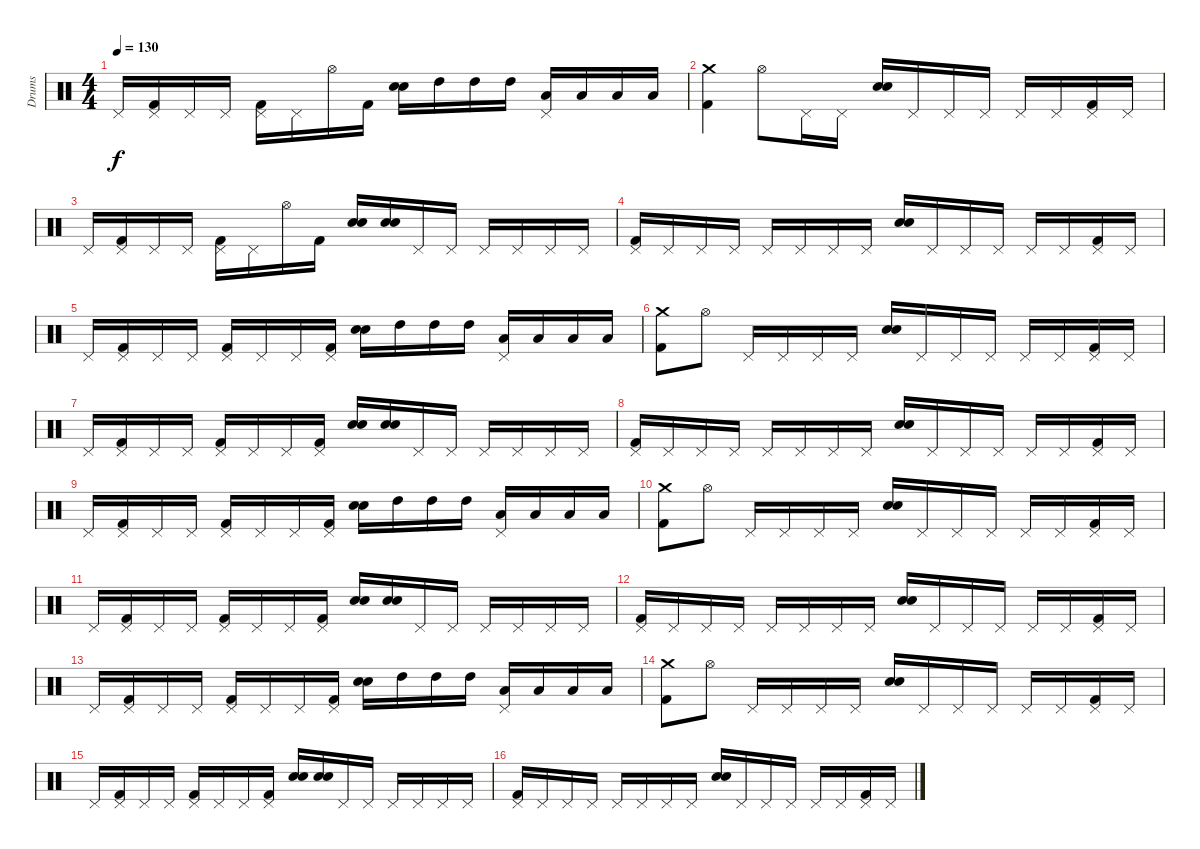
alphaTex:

\track ("Drums" "Drums") {instrument percussion}
\staff {score}
\articulation defaults
\ts (4 4)
\tempo 130
\clef neutral
\ks c "Pedal Hi-Hat (hit)".16{dy f}
("Pedal Hi-Hat (hit)" "Kick (hit) 2").16 "Pedal Hi-Hat (hit)".16 "Pedal Hi-Hat (hit)".16 ("Pedal Hi-Hat (hit)" "Kick (hit) 2").16 "Pedal Hi-Hat (hit)".16 "Hi-Hat (open)".16 "Kick (hit) 2".16 ("Electric Snare (hit)" "Electric Snare (hit)").16 "High Tom (hit)".16 "High Tom (hit)".16 "High Tom (hit)".16 ("Low Tom (hit)" "Pedal Hi-Hat (hit)").16 "Low Tom (hit)".16 "Low Tom (hit)".16 "Low Tom (hit)".16 |
("Crash medium (hit)" "Kick (hit) 2").4 "Hi-Hat (open)".8 "Pedal Hi-Hat (hit)".16 "Pedal Hi-Hat (hit)".16 ("Electric Snare (hit)" "Electric Snare (hit)").16 "Pedal Hi-Hat (hit)".16 "Pedal Hi-Hat (hit)".16 "Pedal Hi-Hat (hit)".16 "Pedal Hi-Hat (hit)".16 "Pedal Hi-Hat (hit)".16 ("Pedal Hi-Hat (hit)" "Kick (hit) 2").16 "Pedal Hi-Hat (hit)".16 |
"Pedal Hi-Hat (hit)".16 ("Pedal Hi-Hat (hit)" "Kick (hit) 2").16 "Pedal Hi-Hat (hit)".16 "Pedal Hi-Hat (hit)".16 ("Pedal Hi-Hat (hit)" "Kick (hit) 2").16 "Pedal Hi-Hat (hit)".16 "Hi-Hat (open)".16 "Kick (hit) 2".16 ("Electric Snare (hit)" "Electric Snare (hit)").16 ("Electric Snare (hit)" "Electric Snare (hit)").16 "Pedal Hi-Hat (hit)".16 "Pedal Hi-Hat (hit)".16 "Pedal Hi-Hat (hit)".16 "Pedal Hi-Hat (hit)".16 "Pedal Hi-Hat (hit)".16 "Pedal Hi-Hat (hit)".16 |
("Pedal Hi-Hat (hit)" "Kick (hit) 2").16 "Pedal Hi-Hat (hit)".16 "Pedal Hi-Hat (hit)".16 "Pedal Hi-Hat (hit)".16 "Pedal Hi-Hat (hit)".16 "Pedal Hi-Hat (hit)".16 "Pedal Hi-Hat (hit)".16 "Pedal Hi-Hat (hit)".16 ("Electric Snare (hit)" "Electric Snare (hit)").16 "Pedal Hi-Hat (hit)".16 "Pedal Hi-Hat (hit)".16 "Pedal Hi-Hat (hit)".16 "Pedal Hi-Hat (hit)".16 "Pedal Hi-Hat (hit)".16 ("Pedal Hi-Hat (hit)" "Kick (hit) 2").16 "Pedal Hi-Hat (hit)".16 |
"Pedal Hi-Hat (hit)".16 ("Pedal Hi-Hat (hit)" "Kick (hit) 2").16 "Pedal Hi-Hat (hit)".16 "Pedal Hi-Hat (hit)".16 ("Pedal Hi-Hat (hit)" "Kick (hit) 2").16 "Pedal Hi-Hat (hit)".16 "Pedal Hi-Hat (hit)".16 ("Pedal Hi-Hat (hit)" "Kick (hit) 2").16 ("Electric Snare (hit)" "Electric Snare (hit)").16 "High Tom (hit)".16 "High Tom (hit)".16 "High Tom (hit)".16 ("Low Tom (hit)" "Pedal Hi-Hat (hit)").16 "Low Tom (hit)".16 "Low Tom (hit)".16 "Low Tom (hit)".16 |
("Crash medium (hit)" "Kick (hit) 2").8 "Hi-Hat (open)".8 "Pedal Hi-Hat (hit)".16 "Pedal Hi-Hat (hit)".16 "Pedal Hi-Hat (hit)".16 "Pedal Hi-Hat (hit)".16 ("Electric Snare (hit)" "Electric Snare (hit)").16 "Pedal Hi-Hat (hit)".16 "Pedal Hi-Hat (hit)".16 "Pedal Hi-Hat (hit)".16 "Pedal Hi-Hat (hit)".16 "Pedal Hi-Hat (hit)".16 ("Pedal Hi-Hat (hit)" "Kick (hit) 2").16 "Pedal Hi-Hat (hit)".16 |
"Pedal Hi-Hat (hit)".16 ("Pedal Hi-Hat (hit)" "Kick (hit) 2").16 "Pedal Hi-Hat (hit)".16 "Pedal Hi-Hat (hit)".16 ("Pedal Hi-Hat (hit)" "Kick (hit) 2").16 "Pedal Hi-Hat (hit)".16 "Pedal Hi-Hat (hit)".16 ("Pedal Hi-Hat (hit)" "Kick (hit) 2").16 ("Electric Snare (hit)" "Electric Snare (hit)").16 ("Electric Snare (hit)" "Electric Snare (hit)").16 "Pedal Hi-Hat (hit)".16 "Pedal Hi-Hat (hit)".16 "Pedal Hi-Hat (hit)".16 "Pedal Hi-Hat (hit)".16 "Pedal Hi-Hat (hit)".16 "Pedal Hi-Hat (hit)".16 |
("Pedal Hi-Hat (hit)" "Kick (hit) 2").16 "Pedal Hi-Hat (hit)".16 "Pedal Hi-Hat (hit)".16 "Pedal Hi-Hat (hit)".16 "Pedal Hi-Hat (hit)".16 "Pedal Hi-Hat (hit)".16 "Pedal Hi-Hat (hit)".16 "Pedal Hi-Hat (hit)".16 ("Electric Snare (hit)" "Electric Snare (hit)").16 "Pedal Hi-Hat (hit)".16 "Pedal Hi-Hat (hit)".16 "Pedal Hi-Hat (hit)".16 "Pedal Hi-Hat (hit)".16 "Pedal Hi-Hat (hit)".16 ("Pedal Hi-Hat (hit)" "Kick (hit) 2").16 "Pedal Hi-Hat (hit)".16 |
"Pedal Hi-Hat (hit)".16 ("Pedal Hi-Hat (hit)" "Kick (hit) 2").16 "Pedal Hi-Hat (hit)".16 "Pedal Hi-Hat (hit)".16 ("Pedal Hi-Hat (hit)" "Kick (hit) 2").16 "Pedal Hi-Hat (hit)".16 "Pedal Hi-Hat (hit)".16 ("Pedal Hi-Hat (hit)" "Kick (hit) 2").16 ("Electric Snare (hit)" "Electric Snare (hit)").16 "High Tom (hit)".16 "High Tom (hit)".16 "High Tom (hit)".16 ("Low Tom (hit)" "Pedal Hi-Hat (hit)").16 "Low Tom (hit)".16 "Low Tom (hit)".16 "Low Tom (hit)".16 |
("Crash medium (hit)" "Kick (hit) 2").8 "Hi-Hat (open)".8 "Pedal Hi-Hat (hit)".16 "Pedal Hi-Hat (hit)".16 "Pedal Hi-Hat (hit)".16 "Pedal Hi-Hat (hit)".16 ("Electric Snare (hit)" "Electric Snare (hit)").16 "Pedal Hi-Hat (hit)".16 "Pedal Hi-Hat (hit)".16 "Pedal Hi-Hat (hit)".16 "Pedal Hi-Hat (hit)".16 "Pedal Hi-Hat (hit)".16 ("Pedal Hi-Hat (hit)" "Kick (hit) 2").16 "Pedal Hi-Hat (hit)".16 |
"Pedal Hi-Hat (hit)".16 ("Pedal Hi-Hat (hit)" "Kick (hit) 2").16 "Pedal Hi-Hat (hit)".16 "Pedal Hi-Hat (hit)".16 ("Pedal Hi-Hat (hit)" "Kick (hit) 2").16 "Pedal Hi-Hat (hit)".16 "Pedal Hi-Hat (hit)".16 ("Pedal Hi-Hat (hit)" "Kick (hit) 2").16 ("Electric Snare (hit)" "Electric Snare (hit)").16 ("Electric Snare (hit)" "Electric Snare (hit)").16 "Pedal Hi-Hat (hit)".16 "Pedal Hi-Hat (hit)".16 "Pedal Hi-Hat (hit)".16 "Pedal Hi-Hat (hit)".16 "Pedal Hi-Hat (hit)".16 "Pedal Hi-Hat (hit)".16 |
("Pedal Hi-Hat (hit)" "Kick (hit) 2").16 "Pedal Hi-Hat (hit)".16 "Pedal Hi-Hat (hit)".16 "Pedal Hi-Hat (hit)".16 "Pedal Hi-Hat (hit)".16 "Pedal Hi-Hat (hit)".16 "Pedal Hi-Hat (hit)".16 "Pedal Hi-Hat (hit)".16 ("Electric Snare (hit)" "Electric Snare (hit)").16 "Pedal Hi-Hat (hit)".16 "Pedal Hi-Hat (hit)".16 "Pedal Hi-Hat (hit)".16 "Pedal Hi-Hat (hit)".16 "Pedal Hi-Hat (hit)".16 ("Pedal Hi-Hat (hit)" "Kick (hit) 2").16 "Pedal Hi-Hat (hit)".16 |
"Pedal Hi-Hat (hit)".16 ("Pedal Hi-Hat (hit)" "Kick (hit) 2").16 "Pedal Hi-Hat (hit)".16 "Pedal Hi-Hat (hit)".16 ("Pedal Hi-Hat (hit)" "Kick (hit) 2").16 "Pedal Hi-Hat (hit)".16 "Pedal Hi-Hat (hit)".16 ("Pedal Hi-Hat (hit)" "Kick (hit) 2").16 ("Electric Snare (hit)" "Electric Snare (hit)").16 "High Tom (hit)".16 "High Tom (hit)".16 "High Tom (hit)".16 ("Low Tom (hit)" "Pedal Hi-Hat (hit)").16 "Low Tom (hit)".16 "Low Tom (hit)".16 "Low Tom (hit)".16 |
("Crash medium (hit)" "Kick (hit) 2").8 "Hi-Hat (open)".8 "Pedal Hi-Hat (hit)".16 "Pedal Hi-Hat (hit)".16 "Pedal Hi-Hat (hit)".16 "Pedal Hi-Hat (hit)".16 ("Electric Snare (hit)" "Electric Snare (hit)").16 "Pedal Hi-Hat (hit)".16 "Pedal Hi-Hat (hit)".16 "Pedal Hi-Hat (hit)".16 "Pedal Hi-Hat (hit)".16 "Pedal Hi-Hat (hit)".16 ("Pedal Hi-Hat (hit)" "Kick (hit) 2").16 "Pedal Hi-Hat (hit)".16 |
"Pedal Hi-Hat (hit)".16 ("Pedal Hi-Hat (hit)" "Kick (hit) 2").16 "Pedal Hi-Hat (hit)".16 "Pedal Hi-Hat (hit)".16 ("Pedal Hi-Hat (hit)" "Kick (hit) 2").16 "Pedal Hi-Hat (hit)".16 "Pedal Hi-Hat (hit)".16 ("Pedal Hi-Hat (hit)" "Kick (hit) 2").16 ("Electric Snare (hit)" "Electric Snare (hit)").16 ("Electric Snare (hit)" "Electric Snare (hit)").16 "Pedal Hi-Hat (hit)".16 "Pedal Hi-Hat (hit)".16 "Pedal Hi-Hat (hit)".16 "Pedal Hi-Hat (hit)".16 "Pedal Hi-Hat (hit)".16 "Pedal Hi-Hat (hit)".16 |
("Pedal Hi-Hat (hit)" "Kick (hit) 2").16 "Pedal Hi-Hat (hit)".16 "Pedal Hi-Hat (hit)".16 "Pedal Hi-Hat (hit)".16 "Pedal Hi-Hat (hit)".16 "Pedal Hi-Hat (hit)".16 "Pedal Hi-Hat (hit)".16 "Pedal Hi-Hat (hit)".16 ("Electric Snare (hit)" "Electric Snare (hit)").16 "Pedal Hi-Hat (hit)".16 "Pedal Hi-Hat (hit)".16 "Pedal Hi-Hat (hit)".16 "Pedal Hi-Hat (hit)".16 "Pedal Hi-Hat (hit)".16 ("Pedal Hi-Hat (hit)" "Kick (hit) 2").16 "Pedal Hi-Hat (hit)".16
